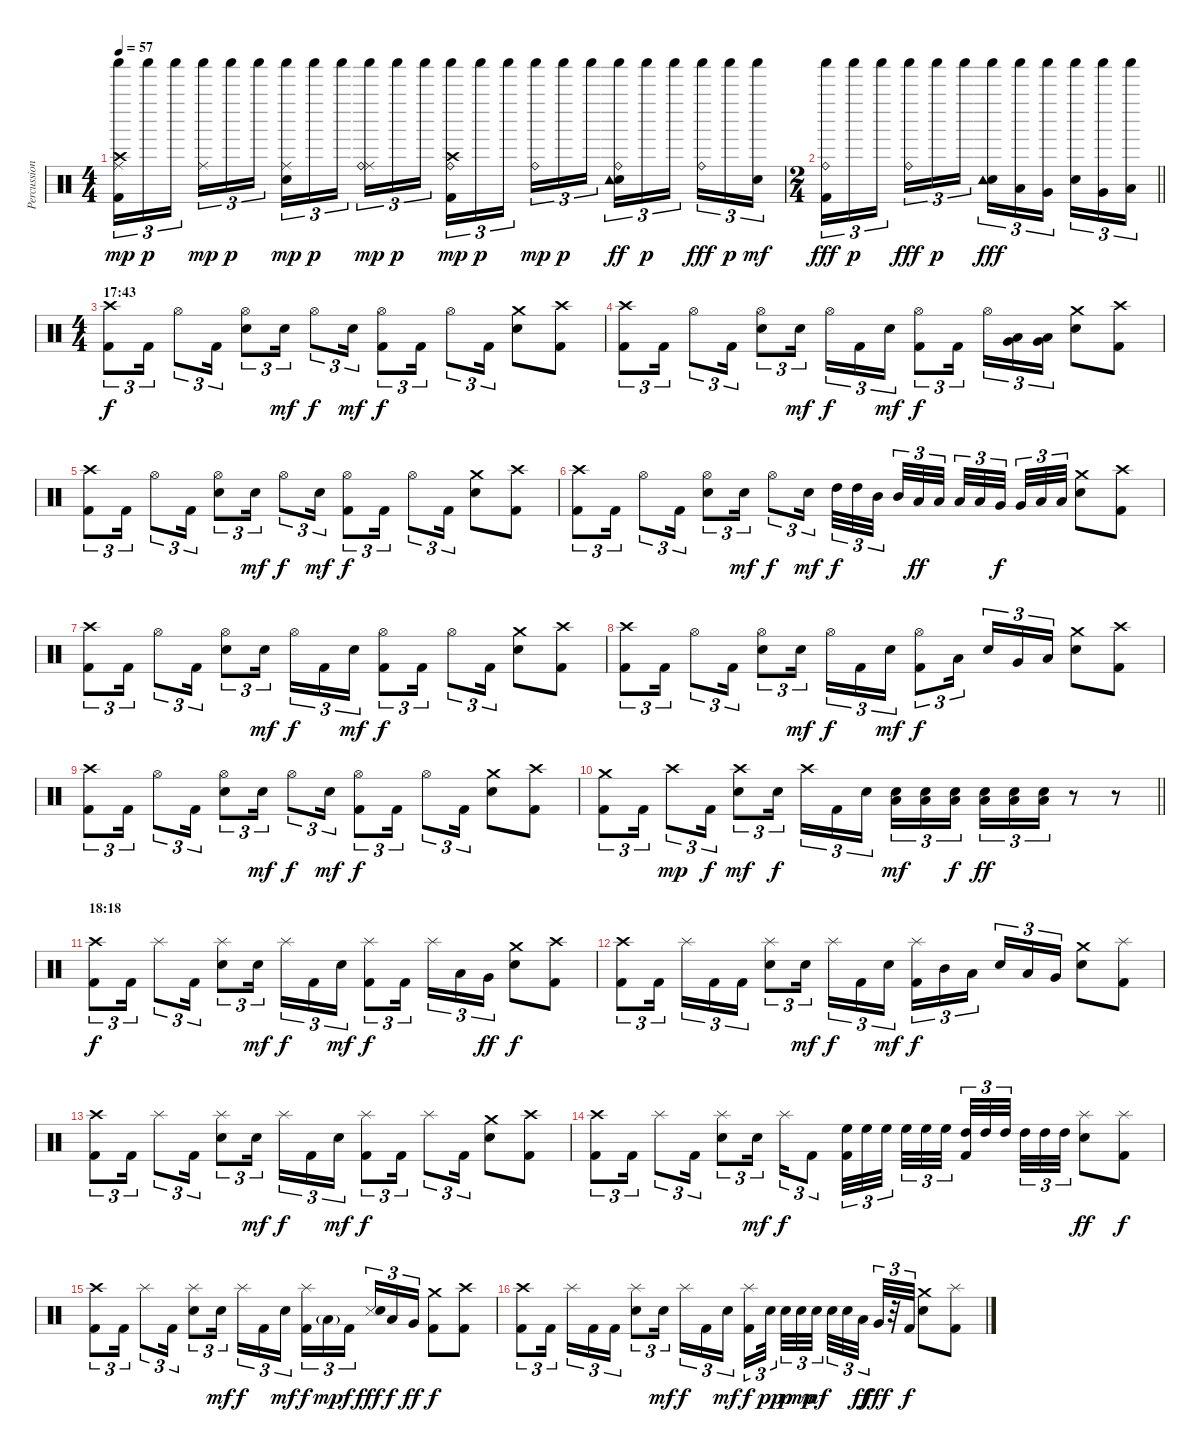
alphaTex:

\track ("Percussions" "Percussion") {instrument percussion}
\staff {score}
\articulation defaults
\ts (4 4)
\tempo 57
\clef neutral
\ks c
("Crash high (hit)" "Shaker (hit)" "Ride (middle)" "Kick (hit) 2").16{tu (3 2) dy mp} "Shaker (hit)".16{tu (3 2) dy p} "Shaker (hit)".16{tu (3 2) beam splitsecondary} ("Shaker (hit)" "Ride (middle)").16{tu (3 2) dy mp} "Shaker (hit)".16{tu (3 2) dy p} "Shaker (hit)".16{tu (3 2)} ("Shaker (hit)" "Ride (middle)" "Snare (hit) 2").16{tu (3 2) dy mp} "Shaker (hit)".16{tu (3 2) dy p} "Shaker (hit)".16{tu (3 2) beam splitsecondary} ("Shaker (hit)" "Ride (middle)" "Ride (bell)").16{tu (3 2) dy mp} "Shaker (hit)".16{tu (3 2) dy p} "Shaker (hit)".16{tu (3 2)} ("Crash high (hit)" "Shaker (hit)" "Ride (bell)" "Kick (hit) 2").16{tu (3 2) dy mp} "Shaker (hit)".16{tu (3 2) dy p} "Shaker (hit)".16{tu (3 2) beam splitsecondary} ("Shaker (hit)" "Ride (bell)").16{tu (3 2) dy mp} "Shaker (hit)".16{tu (3 2) dy p} "Shaker (hit)".16{tu (3 2)} ("Shaker (hit)" "Ride (bell)" "Snare (hit) 2" "Tambourine (hit)").16{tu (3 2) dy ff} "Shaker (hit)".16{tu (3 2) dy p} "Shaker (hit)".16{tu (3 2) beam splitsecondary} ("Shaker (hit)" "Ride (bell)").16{tu (3 2) dy fff} "Shaker (hit)".16{tu (3 2) dy p} ("Shaker (hit)" "Snare (hit) 2").16{tu (3 2) dy mf} |
\ts (2 4)
\barLineRight lightlight
("Shaker (hit)" "Ride (bell)" "Kick (hit) 2").16{tu (3 2) dy fff volume 13} "Shaker (hit)".16{tu (3 2) dy p} "Shaker (hit)".16{tu (3 2) beam splitsecondary} ("Shaker (hit)" "Ride (bell)").16{tu (3 2) dy fff} "Shaker (hit)".16{tu (3 2) dy p} "Shaker (hit)".16{tu (3 2)} ("Shaker (hit)" "Snare (hit) 2" "Tambourine (hit)").16{tu (3 2) dy fff} ("Shaker (hit)" "Low Tom (hit)").16{tu (3 2)} ("Shaker (hit)" "Very Low Tom (hit)").16{tu (3 2) beam splitsecondary} ("Shaker (hit)" "Snare (hit) 2").16{tu (3 2)} ("Shaker (hit)" "Very Low Tom (hit)").16{tu (3 2)} ("Shaker (hit)" "Low Floor Tom (hit)").16{tu (3 2)} |
\ts (4 4)
\section ("" "17:43")
("Crash high (hit)" "Kick (hit) 2").8{tu (3 2) dy f} "Kick (hit) 2".16{tu (3 2)} "Hi-Hat (open)".8{tu (3 2)} "Kick (hit) 2".16{tu (3 2)} ("Hi-Hat (open)" "Snare (hit) 2").8{tu (3 2)} "Snare (hit) 2".16{tu (3 2) dy mf} "Hi-Hat (open)".8{tu (3 2) dy f} "Snare (hit) 2".16{tu (3 2) dy mf} ("Hi-Hat (open)" "Kick (hit) 2").8{tu (3 2) dy f} "Kick (hit) 2".16{tu (3 2)} "Hi-Hat (open)".8{tu (3 2)} "Kick (hit) 2".16{tu (3 2)} ("Crash medium (hit)" "Snare (hit) 2").8 ("Crash high (hit)" "Kick (hit) 2").8 |
("Crash high (hit)" "Kick (hit) 2").8{tu (3 2)} "Kick (hit) 2".16{tu (3 2)} "Hi-Hat (open)".8{tu (3 2)} "Kick (hit) 2".16{tu (3 2)} ("Hi-Hat (open)" "Snare (hit) 2").8{tu (3 2)} "Snare (hit) 2".16{tu (3 2) dy mf beam splitsecondary} "Hi-Hat (open)".16{tu (3 2) dy f} "Kick (hit) 2".16{tu (3 2)} "Snare (hit) 2".16{tu (3 2) dy mf} ("Hi-Hat (open)" "Kick (hit) 2").8{tu (3 2) dy f} "Kick (hit) 2".16{tu (3 2) beam splitsecondary} "Hi-Hat (open)".16{tu (3 2)} ("Low Tom (hit)" "Very Low Tom (hit)").16{tu (3 2)} ("Very Low Tom (hit)" "Low Floor Tom (hit)").16{tu (3 2)} ("Crash medium (hit)" "Snare (hit) 2").8 ("Crash high (hit)" "Kick (hit) 2").8 |
("Crash high (hit)" "Kick (hit) 2").8{tu (3 2)} "Kick (hit) 2".16{tu (3 2)} "Hi-Hat (open)".8{tu (3 2)} "Kick (hit) 2".16{tu (3 2)} ("Hi-Hat (open)" "Snare (hit) 2").8{tu (3 2)} "Snare (hit) 2".16{tu (3 2) dy mf} "Hi-Hat (open)".8{tu (3 2) dy f} "Snare (hit) 2".16{tu (3 2) dy mf} ("Hi-Hat (open)" "Kick (hit) 2").8{tu (3 2) dy f} "Kick (hit) 2".16{tu (3 2)} "Hi-Hat (open)".8{tu (3 2)} "Kick (hit) 2".16{tu (3 2)} ("Crash medium (hit)" "Snare (hit) 2").8 ("Crash high (hit)" "Kick (hit) 2").8 |
("Crash high (hit)" "Kick (hit) 2").8{tu (3 2)} "Kick (hit) 2".16{tu (3 2)} "Hi-Hat (open)".8{tu (3 2)} "Kick (hit) 2".16{tu (3 2)} ("Hi-Hat (open)" "Snare (hit) 2").8{tu (3 2)} "Snare (hit) 2".16{tu (3 2) dy mf} "Hi-Hat (open)".8{tu (3 2) dy f} "Snare (hit) 2".16{tu (3 2) dy mf} "High Tom (hit)".32{tu (3 2) dy f} "High Tom (hit)".32{tu (3 2)} "Mid Tom (hit)".32{tu (3 2) beam splitsecondary} "Mid Tom (hit)".32{tu (3 2)} "Low Tom (hit)".32{tu (3 2) dy ff} "Low Tom (hit)".32{tu (3 2) beam splitsecondary} "Low Tom (hit)".32{tu (3 2)} "Low Tom (hit)".32{tu (3 2)} "Very Low Tom (hit)".32{tu (3 2) dy f beam splitsecondary} "Very Low Tom (hit)".32{tu (3 2)} "Low Floor Tom (hit)".32{tu (3 2)} "Low Floor Tom (hit)".32{tu (3 2)} ("Crash medium (hit)" "Snare (hit) 2").8 ("Crash high (hit)" "Kick (hit) 2").8 |
("Crash high (hit)" "Kick (hit) 2").8{tu (3 2)} "Kick (hit) 2".16{tu (3 2)} "Hi-Hat (open)".8{tu (3 2)} "Kick (hit) 2".16{tu (3 2)} ("Hi-Hat (open)" "Snare (hit) 2").8{tu (3 2)} "Snare (hit) 2".16{tu (3 2) dy mf beam splitsecondary} "Hi-Hat (open)".16{tu (3 2) dy f} "Kick (hit) 2".16{tu (3 2)} "Snare (hit) 2".16{tu (3 2) dy mf} ("Hi-Hat (open)" "Kick (hit) 2").8{tu (3 2) dy f} "Kick (hit) 2".16{tu (3 2)} "Hi-Hat (open)".8{tu (3 2)} "Kick (hit) 2".16{tu (3 2)} ("Crash medium (hit)" "Snare (hit) 2").8 ("Crash high (hit)" "Kick (hit) 2").8 |
("Crash high (hit)" "Kick (hit) 2").8{tu (3 2)} "Kick (hit) 2".16{tu (3 2)} "Hi-Hat (open)".8{tu (3 2)} "Kick (hit) 2".16{tu (3 2)} ("Hi-Hat (open)" "Snare (hit) 2").8{tu (3 2)} "Snare (hit) 2".16{tu (3 2) dy mf beam splitsecondary} "Hi-Hat (open)".16{tu (3 2) dy f} "Kick (hit) 2".16{tu (3 2)} "Snare (hit) 2".16{tu (3 2) dy mf} ("Hi-Hat (open)" "Kick (hit) 2").8{tu (3 2) dy f} "Low Tom (hit)".16{tu (3 2) beam splitsecondary} "Snare (hit) 2".16{tu (3 2)} "Very Low Tom (hit)".16{tu (3 2)} "Low Floor Tom (hit)".16{tu (3 2)} ("Crash medium (hit)" "Snare (hit) 2").8 ("Crash high (hit)" "Kick (hit) 2").8 |
("Crash high (hit)" "Kick (hit) 2").8{tu (3 2)} "Kick (hit) 2".16{tu (3 2)} "Hi-Hat (open)".8{tu (3 2)} "Kick (hit) 2".16{tu (3 2)} ("Hi-Hat (open)" "Snare (hit) 2").8{tu (3 2)} "Snare (hit) 2".16{tu (3 2) dy mf} "Hi-Hat (open)".8{tu (3 2) dy f} "Snare (hit) 2".16{tu (3 2) dy mf} ("Hi-Hat (open)" "Kick (hit) 2").8{tu (3 2) dy f} "Kick (hit) 2".16{tu (3 2)} "Hi-Hat (open)".8{tu (3 2)} "Kick (hit) 2".16{tu (3 2)} ("Crash medium (hit)" "Snare (hit) 2").8 ("Crash high (hit)" "Kick (hit) 2").8 |
\barLineRight lightlight
("Crash medium (hit)" "Kick (hit) 2").8{tu (3 2)} "Kick (hit) 2".16{tu (3 2)} "Crash high (hit)".8{tu (3 2) dy mp} "Kick (hit) 2".16{tu (3 2) dy f} ("Crash high (hit)" "Snare (hit) 2").8{tu (3 2) dy mf} "Snare (hit) 2".16{tu (3 2) dy f beam splitsecondary} "Crash high (hit)".16{tu (3 2)} "Kick (hit) 2".16{tu (3 2)} "Snare (hit) 2".16{tu (3 2)} ("Low Floor Tom (hit)" "Snare (hit) 2").16{tu (3 2) dy mf} ("Low Floor Tom (hit)" "Snare (hit) 2").16{tu (3 2)} ("Low Floor Tom (hit)" "Snare (hit) 2").16{tu (3 2) dy f beam splitsecondary} ("Low Floor Tom (hit)" "Snare (hit) 2").16{tu (3 2) dy ff} ("Low Floor Tom (hit)" "Snare (hit) 2").16{tu (3 2)} ("Low Floor Tom (hit)" "Snare (hit) 2").16{tu (3 2)} r.8 r.8 |
\section ("" "18:18")
("Crash high (hit)" "Kick (hit) 2").8{tu (3 2) dy f} "Kick (hit) 2".16{tu (3 2)} "Splash (hit)".8{tu (3 2)} "Kick (hit) 2".16{tu (3 2)} ("Splash (hit)" "Snare (hit) 2").8{tu (3 2)} "Snare (hit) 2".16{tu (3 2) dy mf beam splitsecondary} "Splash (hit)".16{tu (3 2) dy f} "Kick (hit) 2".16{tu (3 2)} "Snare (hit) 2".16{tu (3 2) dy mf} ("Splash (hit)" "Kick (hit) 2").8{tu (3 2) dy f} "Kick (hit) 2".16{tu (3 2) beam splitsecondary} "Splash (hit)".16{tu (3 2)} "Low Tom (hit)".16{tu (3 2)} "Very Low Tom (hit)".16{tu (3 2) dy ff} ("Crash medium (hit)" "Snare (hit) 2").8{dy f} ("Crash high (hit)" "Kick (hit) 2").8 |
("Crash high (hit)" "Kick (hit) 2").8{tu (3 2)} "Kick (hit) 2".16{tu (3 2) beam splitsecondary} "Splash (hit)".16{tu (3 2)} "Kick (hit) 2".16{tu (3 2)} "Kick (hit) 2".16{tu (3 2)} ("Splash (hit)" "Snare (hit) 2").8{tu (3 2)} "Snare (hit) 2".16{tu (3 2) dy mf beam splitsecondary} "Splash (hit)".16{tu (3 2) dy f} "Kick (hit) 2".16{tu (3 2)} "Snare (hit) 2".16{tu (3 2) dy mf} ("Splash (hit)" "Kick (hit) 2").16{tu (3 2) dy f} "Mid Tom (hit)".16{tu (3 2)} "Low Tom (hit)".16{tu (3 2) beam splitsecondary} "Snare (hit) 2".16{tu (3 2)} "Low Tom (hit)".16{tu (3 2)} "Very Low Tom (hit)".16{tu (3 2)} ("Crash medium (hit)" "Snare (hit) 2").8 ("Splash (hit)" "Kick (hit) 2").8 |
("Crash high (hit)" "Kick (hit) 2").8{tu (3 2)} "Kick (hit) 2".16{tu (3 2)} "Splash (hit)".8{tu (3 2)} "Kick (hit) 2".16{tu (3 2)} ("Splash (hit)" "Snare (hit) 2").8{tu (3 2)} "Snare (hit) 2".16{tu (3 2) dy mf beam splitsecondary} "Splash (hit)".16{tu (3 2) dy f} "Kick (hit) 2".16{tu (3 2)} "Snare (hit) 2".16{tu (3 2) dy mf} ("Splash (hit)" "Kick (hit) 2").8{tu (3 2) dy f} "Kick (hit) 2".16{tu (3 2)} "Splash (hit)".8{tu (3 2)} "Kick (hit) 2".16{tu (3 2)} ("Crash medium (hit)" "Snare (hit) 2").8 ("Crash high (hit)" "Kick (hit) 2").8 |
("Crash high (hit)" "Kick (hit) 2").8{tu (3 2)} "Kick (hit) 2".16{tu (3 2)} "Splash (hit)".8{tu (3 2)} "Kick (hit) 2".16{tu (3 2)} ("Splash (hit)" "Snare (hit) 2").8{tu (3 2)} "Snare (hit) 2".16{tu (3 2) dy mf beam splitsecondary} "Splash (hit)".16{tu (3 2) dy f} "Kick (hit) 2".8{tu (3 2)} ("High Floor Tom (hit)" "Kick (hit) 2").32{tu (3 2)} "High Floor Tom (hit)".32{tu (3 2)} "High Floor Tom (hit)".32{tu (3 2) beam splitsecondary} "High Floor Tom (hit)".32{tu (3 2)} "High Floor Tom (hit)".32{tu (3 2)} "High Floor Tom (hit)".32{tu (3 2) beam splitsecondary} ("High Tom (hit)" "Kick (hit) 2").32{tu (3 2)} "High Tom (hit)".32{tu (3 2)} "High Tom (hit)".32{tu (3 2) beam splitsecondary} "High Tom (hit)".32{tu (3 2)} "High Tom (hit)".32{tu (3 2)} "High Tom (hit)".32{tu (3 2)} ("Splash (hit)" "Snare (hit) 2").8{dy ff} ("Splash (hit)" "Kick (hit) 2").8{dy f} |
("Crash high (hit)" "Kick (hit) 2").8{tu (3 2)} "Kick (hit) 2".16{tu (3 2)} "Splash (hit)".8{tu (3 2)} "Kick (hit) 2".16{tu (3 2)} ("Splash (hit)" "Snare (hit) 2").8{tu (3 2)} "Snare (hit) 2".16{tu (3 2) dy mf beam splitsecondary} "Splash (hit)".16{tu (3 2) dy f} "Kick (hit) 2".16{tu (3 2)} "Snare (hit) 2".16{tu (3 2) dy mf} ("Splash (hit)" "Kick (hit) 2").16{tu (3 2) dy f} "Low Tom (hit)"{g}.16{tu (3 2) dy mp} "Kick (hit) 2".16{tu (3 2) dy f beam splitsecondary} ("Snare (side stick) 3" "Snare (hit) 2").16{tu (3 2) dy fff} "Low Tom (hit)".16{tu (3 2) dy f} "Very Low Tom (hit)".16{tu (3 2) dy ff} ("Crash medium (hit)" "Kick (hit) 2").8{dy f} ("Crash high (hit)" "Kick (hit) 2").8 |
("Crash high (hit)" "Kick (hit) 2").8{tu (3 2)} "Kick (hit) 2".16{tu (3 2) beam splitsecondary} "Splash (hit)".16{tu (3 2)} "Kick (hit) 2".16{tu (3 2)} "Kick (hit) 2".16{tu (3 2)} ("Splash (hit)" "Snare (hit) 2").8{tu (3 2)} "Snare (hit) 2".16{tu (3 2) dy mf beam splitsecondary} "Splash (hit)".16{tu (3 2) dy f} "Kick (hit) 2".16{tu (3 2)} "Snare (hit) 2".16{tu (3 2) dy mf} ("Splash (hit)" "Kick (hit) 2").16{tu (3 2) dy f} "Snare (hit) 2".32{tu (3 2) dy pp beam splitsecondary} "Snare (hit) 2".32{tu (3 2) dy p} "Snare (hit) 2".32{tu (3 2) dy mp} "Snare (hit) 2".32{tu (3 2) dy mf beam splitsecondary} "Snare (hit) 2".32{tu (3 2)} "Snare (hit) 2".32{tu (3 2)} "Low Tom (hit)".32{tu (3 2) dy ff beam splitsecondary} "Very Low Tom (hit)".32{tu (3 2) dy fff} r.32{tu (3 2)} "Kick (hit) 2".32{tu (3 2) dy f} ("Crash medium (hit)" "Snare (hit) 2").8 ("Splash (hit)" "Kick (hit) 2").8
